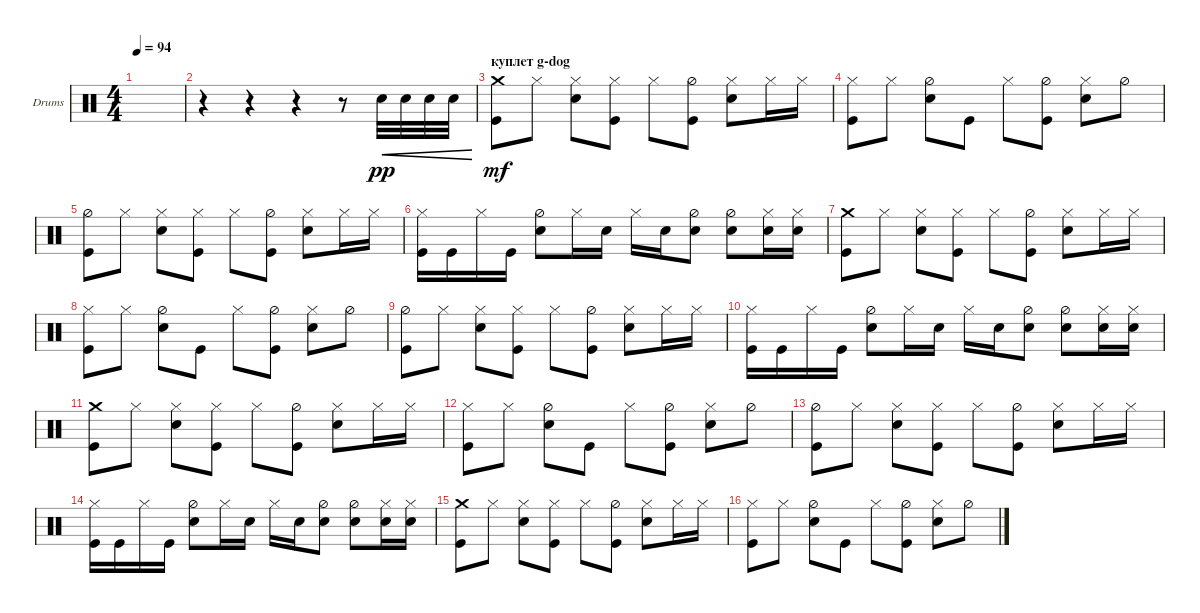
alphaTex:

\defaultSystemsLayout 4
\bracketExtendMode groupsimilarinstruments
\firstSystemTrackNameOrientation horizontal
\otherSystemsTrackNameOrientation horizontal
\track ("Drumkit" "Drums") {instrument percussion}
\staff {score}
\articulation defaults
\ts (4 4)
\tempo 94
\clef neutral
\ks c
|
r.4 r.4 r.4 r.8 "Snare (hit) 2".32{cre dy pp} "Snare (hit) 2".32{cre} "Snare (hit) 2".32{cre} "Snare (hit) 2".32{cre} |
\section ("" "куплет g-dog")
("Kick (hit)" "Crash medium (hit)").8{dy mf} "Hi-Hat (closed)".8 ("Snare (hit) 2" "Hi-Hat (closed)").8 ("Kick (hit)" "Hi-Hat (closed)").8 "Hi-Hat (closed)".8 ("Kick (hit)" "Hi-Hat (half)").8 ("Snare (hit) 2" "Hi-Hat (closed)").8 "Hi-Hat (closed)".16 "Hi-Hat (closed)".16 |
("Kick (hit)" "Hi-Hat (closed)").8 "Hi-Hat (closed)".8 ("Snare (hit) 2" "Hi-Hat (half)").8 "Kick (hit)".8 "Hi-Hat (closed)".8 ("Kick (hit)" "Hi-Hat (half)").8 ("Snare (hit) 2" "Hi-Hat (closed)").8 "Hi-Hat (half)".8 |
("Kick (hit)" "Hi-Hat (half)").8 "Hi-Hat (closed)".8 ("Snare (hit) 2" "Hi-Hat (closed)").8 ("Kick (hit)" "Hi-Hat (closed)").8 "Hi-Hat (closed)".8 ("Kick (hit)" "Hi-Hat (half)").8 ("Snare (hit) 2" "Hi-Hat (closed)").8 "Hi-Hat (closed)".16 "Hi-Hat (closed)".16 |
("Kick (hit)" "Hi-Hat (closed)").16 "Kick (hit)".16 "Hi-Hat (closed)".16 "Kick (hit)".16 ("Snare (hit) 2" "Hi-Hat (half)").8 "Hi-Hat (closed)".16 "Snare (hit) 2".16 "Hi-Hat (closed)".16 "Snare (hit) 2".16 ("Snare (hit) 2" "Hi-Hat (half)").8 ("Snare (hit) 2" "Hi-Hat (half)").8 ("Snare (hit) 2" "Hi-Hat (closed)").16 ("Snare (hit) 2" "Hi-Hat (closed)").16 |
("Kick (hit)" "Crash medium (hit)").8 "Hi-Hat (closed)".8 ("Snare (hit) 2" "Hi-Hat (closed)").8 ("Kick (hit)" "Hi-Hat (closed)").8 "Hi-Hat (closed)".8 ("Kick (hit)" "Hi-Hat (half)").8 ("Snare (hit) 2" "Hi-Hat (closed)").8 "Hi-Hat (closed)".16 "Hi-Hat (closed)".16 |
("Kick (hit)" "Hi-Hat (closed)").8 "Hi-Hat (closed)".8 ("Snare (hit) 2" "Hi-Hat (half)").8 "Kick (hit)".8 "Hi-Hat (closed)".8 ("Kick (hit)" "Hi-Hat (half)").8 ("Snare (hit) 2" "Hi-Hat (closed)").8 "Hi-Hat (half)".8 |
("Kick (hit)" "Hi-Hat (half)").8 "Hi-Hat (closed)".8 ("Snare (hit) 2" "Hi-Hat (closed)").8 ("Kick (hit)" "Hi-Hat (closed)").8 "Hi-Hat (closed)".8 ("Kick (hit)" "Hi-Hat (half)").8 ("Snare (hit) 2" "Hi-Hat (closed)").8 "Hi-Hat (closed)".16 "Hi-Hat (closed)".16 |
("Kick (hit)" "Hi-Hat (closed)").16 "Kick (hit)".16 "Hi-Hat (closed)".16 "Kick (hit)".16 ("Snare (hit) 2" "Hi-Hat (half)").8 "Hi-Hat (closed)".16 "Snare (hit) 2".16 "Hi-Hat (closed)".16 "Snare (hit) 2".16 ("Snare (hit) 2" "Hi-Hat (half)").8 ("Snare (hit) 2" "Hi-Hat (half)").8 ("Snare (hit) 2" "Hi-Hat (closed)").16 ("Snare (hit) 2" "Hi-Hat (closed)").16 |
("Kick (hit)" "Crash medium (hit)").8 "Hi-Hat (closed)".8 ("Snare (hit) 2" "Hi-Hat (closed)").8 ("Kick (hit)" "Hi-Hat (closed)").8 "Hi-Hat (closed)".8 ("Kick (hit)" "Hi-Hat (half)").8 ("Snare (hit) 2" "Hi-Hat (closed)").8 "Hi-Hat (closed)".16 "Hi-Hat (closed)".16 |
("Kick (hit)" "Hi-Hat (closed)").8 "Hi-Hat (closed)".8 ("Snare (hit) 2" "Hi-Hat (half)").8 "Kick (hit)".8 "Hi-Hat (closed)".8 ("Kick (hit)" "Hi-Hat (half)").8 ("Snare (hit) 2" "Hi-Hat (closed)").8 "Hi-Hat (half)".8 |
("Kick (hit)" "Hi-Hat (half)").8 "Hi-Hat (closed)".8 ("Snare (hit) 2" "Hi-Hat (closed)").8 ("Kick (hit)" "Hi-Hat (closed)").8 "Hi-Hat (closed)".8 ("Kick (hit)" "Hi-Hat (half)").8 ("Snare (hit) 2" "Hi-Hat (closed)").8 "Hi-Hat (closed)".16 "Hi-Hat (closed)".16 |
("Kick (hit)" "Hi-Hat (closed)").16 "Kick (hit)".16 "Hi-Hat (closed)".16 "Kick (hit)".16 ("Snare (hit) 2" "Hi-Hat (half)").8 "Hi-Hat (closed)".16 "Snare (hit) 2".16 "Hi-Hat (closed)".16 "Snare (hit) 2".16 ("Snare (hit) 2" "Hi-Hat (half)").8 ("Snare (hit) 2" "Hi-Hat (half)").8 ("Snare (hit) 2" "Hi-Hat (closed)").16 ("Snare (hit) 2" "Hi-Hat (closed)").16 |
("Kick (hit)" "Crash medium (hit)").8 "Hi-Hat (closed)".8 ("Snare (hit) 2" "Hi-Hat (closed)").8 ("Kick (hit)" "Hi-Hat (closed)").8 "Hi-Hat (closed)".8 ("Kick (hit)" "Hi-Hat (half)").8 ("Snare (hit) 2" "Hi-Hat (closed)").8 "Hi-Hat (closed)".16 "Hi-Hat (closed)".16 |
("Kick (hit)" "Hi-Hat (closed)").8 "Hi-Hat (closed)".8 ("Snare (hit) 2" "Hi-Hat (half)").8 "Kick (hit)".8 "Hi-Hat (closed)".8 ("Kick (hit)" "Hi-Hat (half)").8 ("Snare (hit) 2" "Hi-Hat (closed)").8 "Hi-Hat (half)".8
